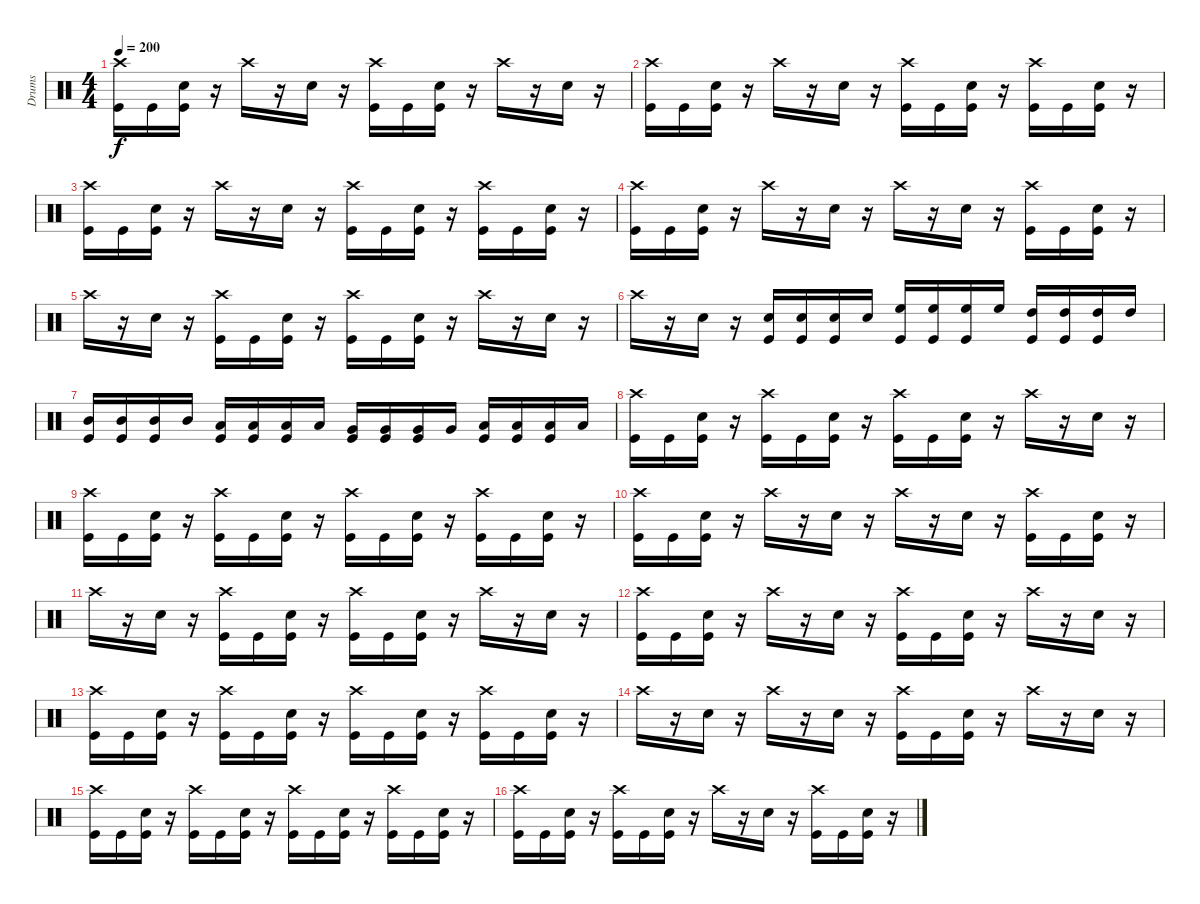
\track ("Drums" "Drums") {instrument percussion}
\staff {score}
\articulation defaults
\ts (4 4)
\tempo 200
\clef neutral
\ks c
("Crash high (hit)" "Kick (hit)").16{dy f} "Kick (hit)".16 ("Snare (hit) 2" "Kick (hit)").16 r.16 "Crash high (hit)".16 r.16 "Snare (hit) 2".16 r.16 ("Crash high (hit)" "Kick (hit)").16 "Kick (hit)".16 ("Snare (hit) 2" "Kick (hit)").16 r.16 "Crash high (hit)".16 r.16 "Snare (hit) 2".16 r.16 |
("Crash high (hit)" "Kick (hit)").16 "Kick (hit)".16 ("Snare (hit) 2" "Kick (hit)").16 r.16 "Crash high (hit)".16 r.16 "Snare (hit) 2".16 r.16 ("Crash high (hit)" "Kick (hit)").16 "Kick (hit)".16 ("Snare (hit) 2" "Kick (hit)").16 r.16 ("Crash high (hit)" "Kick (hit)").16 "Kick (hit)".16 ("Snare (hit) 2" "Kick (hit)").16 r.16 |
("Crash high (hit)" "Kick (hit)").16 "Kick (hit)".16 ("Snare (hit) 2" "Kick (hit)").16 r.16 "Crash high (hit)".16 r.16 "Snare (hit) 2".16 r.16 ("Crash high (hit)" "Kick (hit)").16 "Kick (hit)".16 ("Snare (hit) 2" "Kick (hit)").16 r.16 ("Crash high (hit)" "Kick (hit)").16 "Kick (hit)".16 ("Snare (hit) 2" "Kick (hit)").16 r.16 |
("Crash high (hit)" "Kick (hit)").16 "Kick (hit)".16 ("Snare (hit) 2" "Kick (hit)").16 r.16 "Crash high (hit)".16 r.16 "Snare (hit) 2".16 r.16 "Crash high (hit)".16 r.16 "Snare (hit) 2".16 r.16 ("Crash high (hit)" "Kick (hit)").16 "Kick (hit)".16 ("Snare (hit) 2" "Kick (hit)").16 r.16 |
"Crash high (hit)".16 r.16 "Snare (hit) 2".16 r.16 ("Crash high (hit)" "Kick (hit)").16 "Kick (hit)".16 ("Snare (hit) 2" "Kick (hit)").16 r.16 ("Crash high (hit)" "Kick (hit)").16 "Kick (hit)".16 ("Snare (hit) 2" "Kick (hit)").16 r.16 "Crash high (hit)".16 r.16 "Snare (hit) 2".16 r.16 |
"Crash high (hit)".16 r.16 "Snare (hit) 2".16 r.16 ("Snare (hit) 2" "Kick (hit)").16 ("Snare (hit) 2" "Kick (hit)").16 ("Snare (hit) 2" "Kick (hit)").16 "Snare (hit) 2".16 ("High Floor Tom (hit)" "Kick (hit)").16 ("High Floor Tom (hit)" "Kick (hit)").16 ("High Floor Tom (hit)" "Kick (hit)").16 "High Floor Tom (hit)".16 ("High Tom (hit)" "Kick (hit)").16 ("High Tom (hit)" "Kick (hit)").16 ("High Tom (hit)" "Kick (hit)").16 "High Tom (hit)".16 |
("Mid Tom (hit)" "Kick (hit)").16 ("Mid Tom (hit)" "Kick (hit)").16 ("Mid Tom (hit)" "Kick (hit)").16 "Mid Tom (hit)".16 ("Low Tom (hit)" "Kick (hit)").16 ("Low Tom (hit)" "Kick (hit)").16 ("Low Tom (hit)" "Kick (hit)").16 "Low Tom (hit)".16 ("Very Low Tom (hit)" "Kick (hit)").16 ("Very Low Tom (hit)" "Kick (hit)").16 ("Very Low Tom (hit)" "Kick (hit)").16 "Very Low Tom (hit)".16 ("Low Floor Tom (hit)" "Kick (hit)").16 ("Low Floor Tom (hit)" "Kick (hit)").16 ("Low Floor Tom (hit)" "Kick (hit)").16 "Low Floor Tom (hit)".16 |
("Crash high (hit)" "Kick (hit)").16 "Kick (hit)".16 ("Snare (hit) 2" "Kick (hit)").16 r.16 ("Crash high (hit)" "Kick (hit)").16 "Kick (hit)".16 ("Snare (hit) 2" "Kick (hit)").16 r.16 ("Crash high (hit)" "Kick (hit)").16 "Kick (hit)".16 ("Snare (hit) 2" "Kick (hit)").16 r.16 "Crash high (hit)".16 r.16 "Snare (hit) 2".16 r.16 |
("Crash high (hit)" "Kick (hit)").16 "Kick (hit)".16 ("Snare (hit) 2" "Kick (hit)").16 r.16 ("Crash high (hit)" "Kick (hit)").16 "Kick (hit)".16 ("Snare (hit) 2" "Kick (hit)").16 r.16 ("Crash high (hit)" "Kick (hit)").16 "Kick (hit)".16 ("Snare (hit) 2" "Kick (hit)").16 r.16 ("Crash high (hit)" "Kick (hit)").16 "Kick (hit)".16 ("Snare (hit) 2" "Kick (hit)").16 r.16 |
("Crash high (hit)" "Kick (hit)").16 "Kick (hit)".16 ("Snare (hit) 2" "Kick (hit)").16 r.16 "Crash high (hit)".16 r.16 "Snare (hit) 2".16 r.16 "Crash high (hit)".16 r.16 "Snare (hit) 2".16 r.16 ("Crash high (hit)" "Kick (hit)").16 "Kick (hit)".16 ("Snare (hit) 2" "Kick (hit)").16 r.16 |
"Crash high (hit)".16 r.16 "Snare (hit) 2".16 r.16 ("Crash high (hit)" "Kick (hit)").16 "Kick (hit)".16 ("Snare (hit) 2" "Kick (hit)").16 r.16 ("Crash high (hit)" "Kick (hit)").16 "Kick (hit)".16 ("Snare (hit) 2" "Kick (hit)").16 r.16 "Crash high (hit)".16 r.16 "Snare (hit) 2".16 r.16 |
("Crash high (hit)" "Kick (hit)").16 "Kick (hit)".16 ("Snare (hit) 2" "Kick (hit)").16 r.16 "Crash high (hit)".16 r.16 "Snare (hit) 2".16 r.16 ("Crash high (hit)" "Kick (hit)").16 "Kick (hit)".16 ("Snare (hit) 2" "Kick (hit)").16 r.16 "Crash high (hit)".16 r.16 "Snare (hit) 2".16 r.16 |
("Crash high (hit)" "Kick (hit)").16 "Kick (hit)".16 ("Snare (hit) 2" "Kick (hit)").16 r.16 ("Crash high (hit)" "Kick (hit)").16 "Kick (hit)".16 ("Snare (hit) 2" "Kick (hit)").16 r.16 ("Crash high (hit)" "Kick (hit)").16 "Kick (hit)".16 ("Snare (hit) 2" "Kick (hit)").16 r.16 ("Crash high (hit)" "Kick (hit)").16 "Kick (hit)".16 ("Snare (hit) 2" "Kick (hit)").16 r.16 |
"Crash high (hit)".16 r.16 "Snare (hit) 2".16 r.16 "Crash high (hit)".16 r.16 "Snare (hit) 2".16 r.16 ("Crash high (hit)" "Kick (hit)").16 "Kick (hit)".16 ("Snare (hit) 2" "Kick (hit)").16 r.16 "Crash high (hit)".16 r.16 "Snare (hit) 2".16 r.16 |
("Crash high (hit)" "Kick (hit)").16 "Kick (hit)".16 ("Snare (hit) 2" "Kick (hit)").16 r.16 ("Crash high (hit)" "Kick (hit)").16 "Kick (hit)".16 ("Snare (hit) 2" "Kick (hit)").16 r.16 ("Crash high (hit)" "Kick (hit)").16 "Kick (hit)".16 ("Snare (hit) 2" "Kick (hit)").16 r.16 ("Crash high (hit)" "Kick (hit)").16 "Kick (hit)".16 ("Snare (hit) 2" "Kick (hit)").16 r.16 |
("Crash high (hit)" "Kick (hit)").16 "Kick (hit)".16 ("Snare (hit) 2" "Kick (hit)").16 r.16 ("Crash high (hit)" "Kick (hit)").16 "Kick (hit)".16 ("Snare (hit) 2" "Kick (hit)").16 r.16 "Crash high (hit)".16 r.16 "Snare (hit) 2".16 r.16 ("Crash high (hit)" "Kick (hit)").16 "Kick (hit)".16 ("Snare (hit) 2" "Kick (hit)").16 r.16
